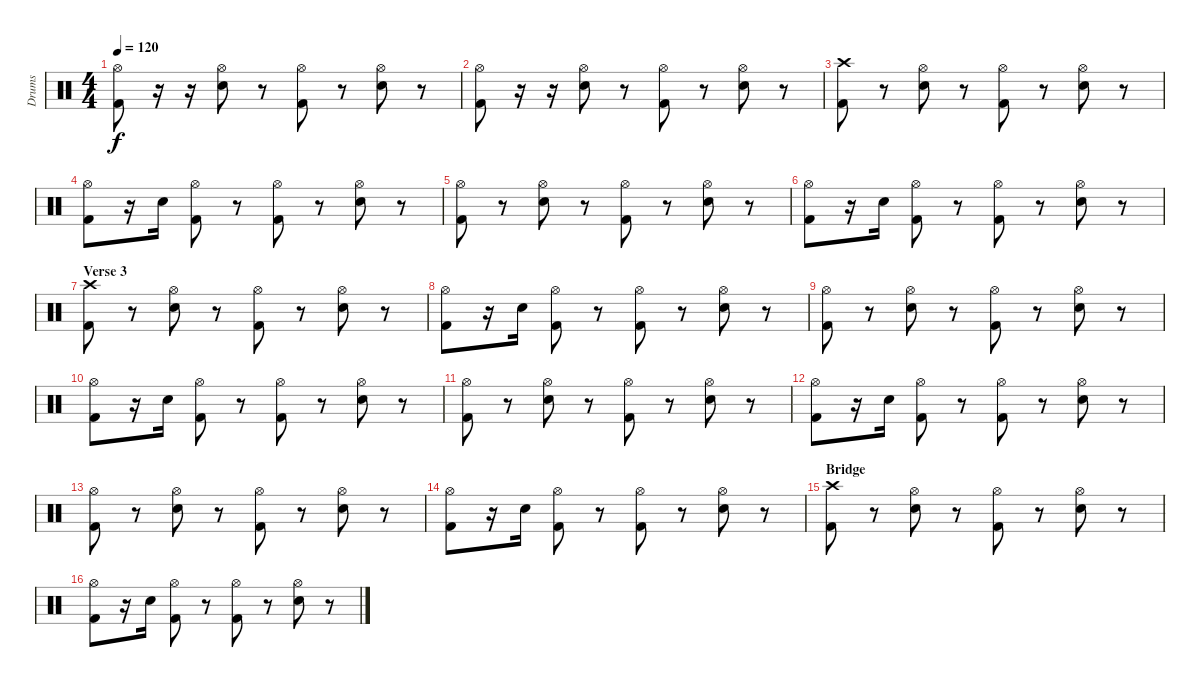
\track ("Drums" "Drums") {instrument percussion}
\staff {score}
\articulation defaults
\ts (4 4)
\tempo 120
\clef neutral
\ks c
("Hi-Hat (open)" "Kick (hit) 2").8{dy f} r.16 r.16 ("Hi-Hat (open)" "Electric Snare (hit)").8 r.8 ("Hi-Hat (open)" "Kick (hit) 2").8 r.8 ("Hi-Hat (open)" "Electric Snare (hit)").8 r.8 |
("Hi-Hat (open)" "Kick (hit) 2").8 r.16 r.16 ("Hi-Hat (open)" "Electric Snare (hit)").8 r.8 ("Hi-Hat (open)" "Kick (hit) 2").8 r.8 ("Hi-Hat (open)" "Electric Snare (hit)").8 r.8 |
("Crash high (hit)" "Kick (hit) 2").8 r.8 ("Hi-Hat (open)" "Electric Snare (hit)").8 r.8 ("Hi-Hat (open)" "Kick (hit) 2").8 r.8 ("Hi-Hat (open)" "Electric Snare (hit)").8 r.8 |
("Hi-Hat (open)" "Kick (hit) 2").8 r.16 "Electric Snare (hit)".16 ("Hi-Hat (open)" "Kick (hit) 2").8 r.8 ("Hi-Hat (open)" "Kick (hit) 2").8 r.8 ("Hi-Hat (open)" "Electric Snare (hit)").8 r.8 |
("Hi-Hat (open)" "Kick (hit) 2").8 r.8 ("Hi-Hat (open)" "Electric Snare (hit)").8 r.8 ("Hi-Hat (open)" "Kick (hit) 2").8 r.8 ("Hi-Hat (open)" "Electric Snare (hit)").8 r.8 |
("Hi-Hat (open)" "Kick (hit) 2").8 r.16 "Electric Snare (hit)".16 ("Hi-Hat (open)" "Kick (hit) 2").8 r.8 ("Hi-Hat (open)" "Kick (hit) 2").8 r.8 ("Hi-Hat (open)" "Electric Snare (hit)").8 r.8 |
\section ("" "Verse 3")
("Crash high (hit)" "Kick (hit) 2").8 r.8 ("Hi-Hat (open)" "Electric Snare (hit)").8 r.8 ("Hi-Hat (open)" "Kick (hit) 2").8 r.8 ("Hi-Hat (open)" "Electric Snare (hit)").8 r.8 |
("Hi-Hat (open)" "Kick (hit) 2").8 r.16 "Electric Snare (hit)".16 ("Hi-Hat (open)" "Kick (hit) 2").8 r.8 ("Hi-Hat (open)" "Kick (hit) 2").8 r.8 ("Hi-Hat (open)" "Electric Snare (hit)").8 r.8 |
("Hi-Hat (open)" "Kick (hit) 2").8 r.8 ("Hi-Hat (open)" "Electric Snare (hit)").8 r.8 ("Hi-Hat (open)" "Kick (hit) 2").8 r.8 ("Hi-Hat (open)" "Electric Snare (hit)").8 r.8 |
("Hi-Hat (open)" "Kick (hit) 2").8 r.16 "Electric Snare (hit)".16 ("Hi-Hat (open)" "Kick (hit) 2").8 r.8 ("Hi-Hat (open)" "Kick (hit) 2").8 r.8 ("Hi-Hat (open)" "Electric Snare (hit)").8 r.8 |
("Hi-Hat (open)" "Kick (hit) 2").8 r.8 ("Hi-Hat (open)" "Electric Snare (hit)").8 r.8 ("Hi-Hat (open)" "Kick (hit) 2").8 r.8 ("Hi-Hat (open)" "Electric Snare (hit)").8 r.8 |
("Hi-Hat (open)" "Kick (hit) 2").8 r.16 "Electric Snare (hit)".16 ("Hi-Hat (open)" "Kick (hit) 2").8 r.8 ("Hi-Hat (open)" "Kick (hit) 2").8 r.8 ("Hi-Hat (open)" "Electric Snare (hit)").8 r.8 |
("Hi-Hat (open)" "Kick (hit) 2").8 r.8 ("Hi-Hat (open)" "Electric Snare (hit)").8 r.8 ("Hi-Hat (open)" "Kick (hit) 2").8 r.8 ("Hi-Hat (open)" "Electric Snare (hit)").8 r.8 |
("Hi-Hat (open)" "Kick (hit) 2").8 r.16 "Electric Snare (hit)".16 ("Hi-Hat (open)" "Kick (hit) 2").8 r.8 ("Hi-Hat (open)" "Kick (hit) 2").8 r.8 ("Hi-Hat (open)" "Electric Snare (hit)").8 r.8 |
\section ("" "Bridge")
("Crash high (hit)" "Kick (hit) 2").8 r.8 ("Hi-Hat (open)" "Electric Snare (hit)").8 r.8 ("Hi-Hat (open)" "Kick (hit) 2").8 r.8 ("Hi-Hat (open)" "Electric Snare (hit)").8 r.8 |
("Hi-Hat (open)" "Kick (hit) 2").8 r.16 "Electric Snare (hit)".16 ("Hi-Hat (open)" "Kick (hit) 2").8 r.8 ("Hi-Hat (open)" "Kick (hit) 2").8 r.8 ("Hi-Hat (open)" "Electric Snare (hit)").8 r.8
